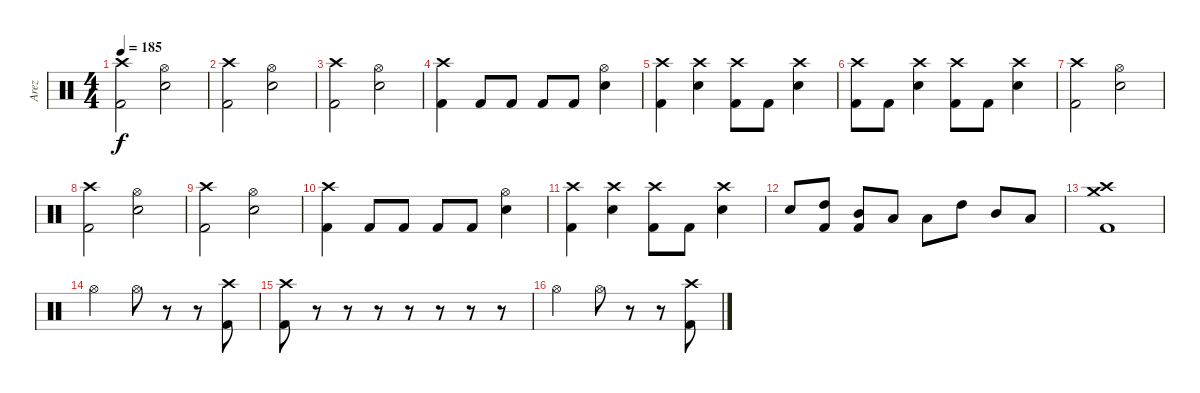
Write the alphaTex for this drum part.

\track ("Arez" "Arez") {instrument percussion}
\staff {score}
\articulation defaults
\ts (4 4)
\tempo 185
\clef neutral
\ks c
("Crash high (hit)" "Kick (hit) 2").2{dy f} ("Electric Snare (hit)" "Hi-Hat (open)").2 |
("Crash high (hit)" "Kick (hit) 2").2 ("Electric Snare (hit)" "Hi-Hat (open)").2 |
("Crash high (hit)" "Kick (hit) 2").2 ("Electric Snare (hit)" "Hi-Hat (open)").2 |
("Crash high (hit)" "Kick (hit) 2").4 "Kick (hit) 2".8 "Kick (hit) 2".8 "Kick (hit) 2".8 "Kick (hit) 2".8 ("Electric Snare (hit)" "Hi-Hat (open)").4 |
("Crash high (hit)" "Kick (hit) 2").4 ("Electric Snare (hit)" "Crash high (hit)").4 ("Crash high (hit)" "Kick (hit) 2").8 "Kick (hit) 2".8 ("Electric Snare (hit)" "Crash high (hit)").4 |
("Crash high (hit)" "Kick (hit) 2").8 "Kick (hit) 2".8 ("Electric Snare (hit)" "Crash high (hit)").4 ("Crash high (hit)" "Kick (hit) 2").8 "Kick (hit) 2".8 ("Electric Snare (hit)" "Crash high (hit)").4 |
("Crash high (hit)" "Kick (hit) 2").2 ("Electric Snare (hit)" "Hi-Hat (open)").2 |
("Crash high (hit)" "Kick (hit) 2").2 ("Electric Snare (hit)" "Hi-Hat (open)").2 |
("Crash high (hit)" "Kick (hit) 2").2 ("Electric Snare (hit)" "Hi-Hat (open)").2 |
("Crash high (hit)" "Kick (hit) 2").4 "Kick (hit) 2".8 "Kick (hit) 2".8 "Kick (hit) 2".8 "Kick (hit) 2".8 ("Electric Snare (hit)" "Hi-Hat (open)").4 |
("Crash high (hit)" "Kick (hit) 2").4 ("Electric Snare (hit)" "Crash high (hit)").4 ("Crash high (hit)" "Kick (hit) 2").8 "Kick (hit) 2".8 ("Electric Snare (hit)" "Crash high (hit)").4 |
"Electric Snare (hit)".8 ("Kick (hit) 2" "High Tom (hit)").8 ("Kick (hit) 2" "Mid Tom (hit)").8 "Low Floor Tom (hit)".8 "Low Floor Tom (hit)".8 "High Tom (hit)".8 "Mid Tom (hit)".8 "Low Floor Tom (hit)".8 |
("Crash high (hit)" "Crash medium (hit)" "Kick (hit) 2").1 |
"Hi-Hat (open)".2 "Hi-Hat (open)".8 r.8 r.8 ("Kick (hit) 2" "Crash high (hit)").8 |
("Crash high (hit)" "Kick (hit) 2").8 r.8 r.8 r.8 r.8 r.8 r.8 r.8 |
"Hi-Hat (open)".2 "Hi-Hat (open)".8 r.8 r.8 ("Kick (hit) 2" "Crash high (hit)").8
